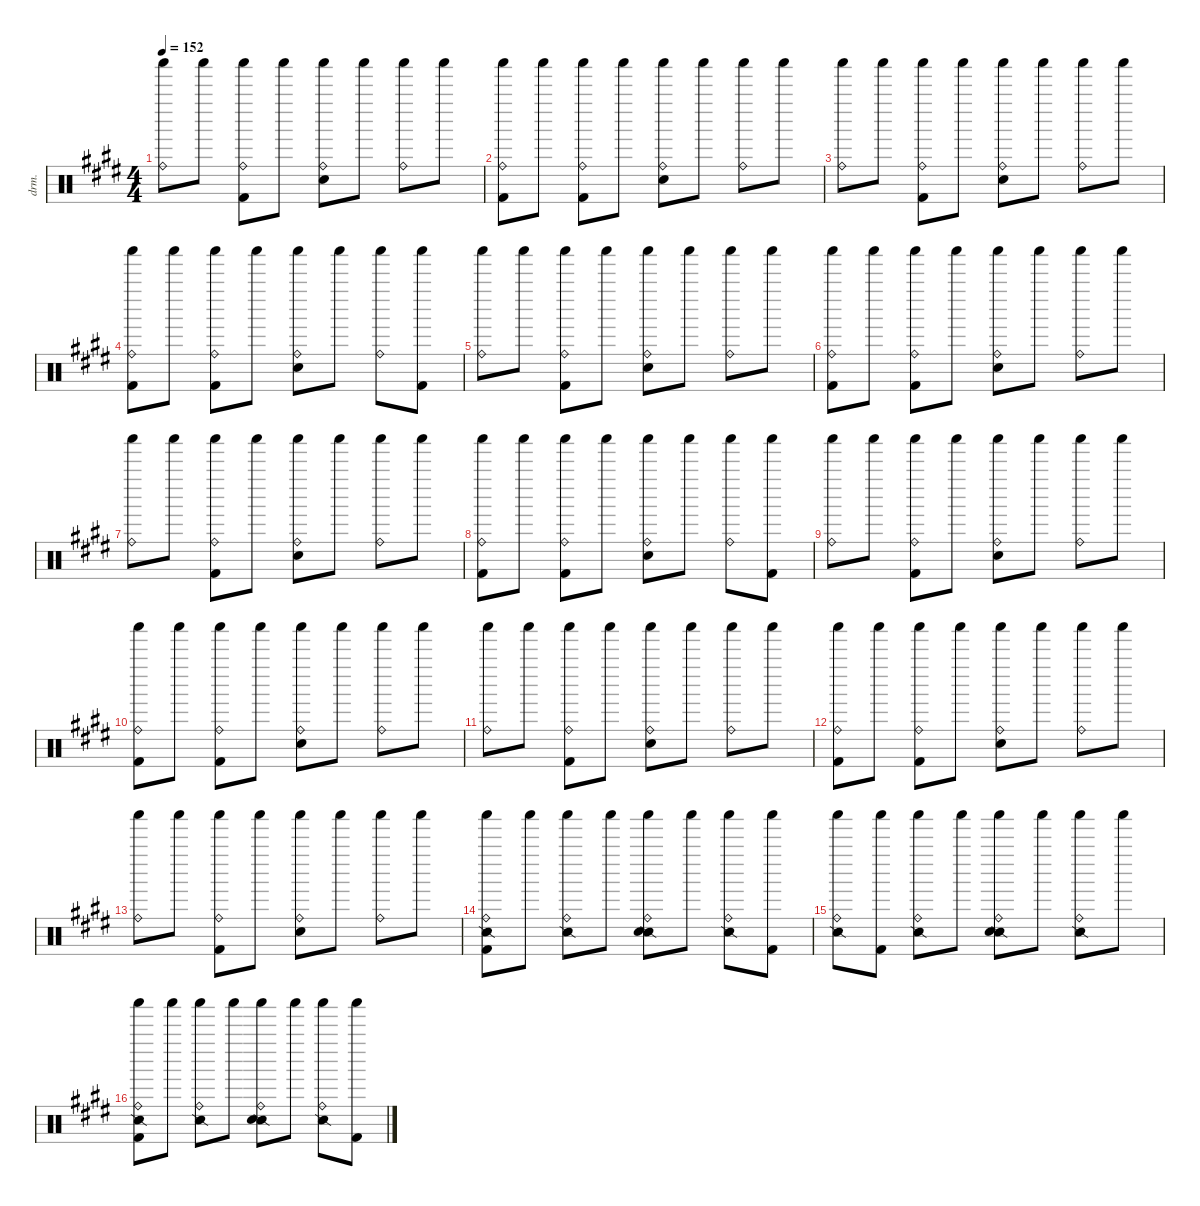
\defaultSystemsLayout 4
\hideDynamics
\bracketExtendMode nobrackets
\otherSystemsTrackNameOrientation horizontal
\track ("Drums" "drm.") {instrument percussion}
\staff {score}
\articulation defaults
\ts (4 4)
\tempo 152
\clef neutral
\ks c#minor
("Ride (bell)"{acc forcenatural} "Shaker (hit)"{acc forcenatural}).8{dy f} "Shaker (hit)"{acc forcenatural}.8 ("Ride (bell)"{acc forcenatural} "Kick (hit) 2"{acc forcenatural} "Shaker (hit)"{acc forcenatural}).8 "Shaker (hit)"{acc forcenatural}.8 ("Ride (bell)"{acc forcenatural} "Snare (hit) 2"{acc forcenatural} "Shaker (hit)"{acc forcenatural}).8 "Shaker (hit)"{acc forcenatural}.8 ("Ride (bell)"{acc forcenatural} "Shaker (hit)"{acc forcenatural}).8 "Shaker (hit)"{acc forcenatural}.8 |
("Ride (bell)"{acc forcenatural} "Kick (hit) 2"{acc forcenatural} "Shaker (hit)"{acc forcenatural}).8 "Shaker (hit)"{acc forcenatural}.8 ("Ride (bell)"{acc forcenatural} "Kick (hit) 2"{acc forcenatural} "Shaker (hit)"{acc forcenatural}).8 "Shaker (hit)"{acc forcenatural}.8 ("Ride (bell)"{acc forcenatural} "Snare (hit) 2"{acc forcenatural} "Shaker (hit)"{acc forcenatural}).8 "Shaker (hit)"{acc forcenatural}.8 ("Ride (bell)"{acc forcenatural} "Shaker (hit)"{acc forcenatural}).8 "Shaker (hit)"{acc forcenatural}.8 |
("Ride (bell)"{acc forcenatural} "Shaker (hit)"{acc forcenatural}).8 "Shaker (hit)"{acc forcenatural}.8 ("Ride (bell)"{acc forcenatural} "Kick (hit) 2"{acc forcenatural} "Shaker (hit)"{acc forcenatural}).8 "Shaker (hit)"{acc forcenatural}.8 ("Ride (bell)"{acc forcenatural} "Snare (hit) 2"{acc forcenatural} "Shaker (hit)"{acc forcenatural}).8 "Shaker (hit)"{acc forcenatural}.8 ("Ride (bell)"{acc forcenatural} "Shaker (hit)"{acc forcenatural}).8 "Shaker (hit)"{acc forcenatural}.8 |
("Ride (bell)"{acc forcenatural} "Kick (hit) 2"{acc forcenatural} "Shaker (hit)"{acc forcenatural}).8 "Shaker (hit)"{acc forcenatural}.8 ("Ride (bell)"{acc forcenatural} "Kick (hit) 2"{acc forcenatural} "Shaker (hit)"{acc forcenatural}).8 "Shaker (hit)"{acc forcenatural}.8 ("Ride (bell)"{acc forcenatural} "Snare (hit) 2"{acc forcenatural} "Shaker (hit)"{acc forcenatural}).8 "Shaker (hit)"{acc forcenatural}.8 ("Ride (bell)"{acc forcenatural} "Shaker (hit)"{acc forcenatural}).8 ("Kick (hit) 2"{acc forcenatural} "Shaker (hit)"{acc forcenatural}).8 |
("Ride (bell)"{acc forcenatural} "Shaker (hit)"{acc forcenatural}).8 "Shaker (hit)"{acc forcenatural}.8 ("Ride (bell)"{acc forcenatural} "Kick (hit) 2"{acc forcenatural} "Shaker (hit)"{acc forcenatural}).8 "Shaker (hit)"{acc forcenatural}.8 ("Ride (bell)"{acc forcenatural} "Snare (hit) 2"{acc forcenatural} "Shaker (hit)"{acc forcenatural}).8 "Shaker (hit)"{acc forcenatural}.8 ("Ride (bell)"{acc forcenatural} "Shaker (hit)"{acc forcenatural}).8 "Shaker (hit)"{acc forcenatural}.8 |
("Ride (bell)"{acc forcenatural} "Kick (hit) 2"{acc forcenatural} "Shaker (hit)"{acc forcenatural}).8 "Shaker (hit)"{acc forcenatural}.8 ("Ride (bell)"{acc forcenatural} "Kick (hit) 2"{acc forcenatural} "Shaker (hit)"{acc forcenatural}).8 "Shaker (hit)"{acc forcenatural}.8 ("Ride (bell)"{acc forcenatural} "Snare (hit) 2"{acc forcenatural} "Shaker (hit)"{acc forcenatural}).8 "Shaker (hit)"{acc forcenatural}.8 ("Ride (bell)"{acc forcenatural} "Shaker (hit)"{acc forcenatural}).8 "Shaker (hit)"{acc forcenatural}.8 |
("Ride (bell)"{acc forcenatural} "Shaker (hit)"{acc forcenatural}).8 "Shaker (hit)"{acc forcenatural}.8 ("Ride (bell)"{acc forcenatural} "Kick (hit) 2"{acc forcenatural} "Shaker (hit)"{acc forcenatural}).8 "Shaker (hit)"{acc forcenatural}.8 ("Ride (bell)"{acc forcenatural} "Snare (hit) 2"{acc forcenatural} "Shaker (hit)"{acc forcenatural}).8 "Shaker (hit)"{acc forcenatural}.8 ("Ride (bell)"{acc forcenatural} "Shaker (hit)"{acc forcenatural}).8 "Shaker (hit)"{acc forcenatural}.8 |
("Ride (bell)"{acc forcenatural} "Kick (hit) 2"{acc forcenatural} "Shaker (hit)"{acc forcenatural}).8 "Shaker (hit)"{acc forcenatural}.8 ("Ride (bell)"{acc forcenatural} "Kick (hit) 2"{acc forcenatural} "Shaker (hit)"{acc forcenatural}).8 "Shaker (hit)"{acc forcenatural}.8 ("Ride (bell)"{acc forcenatural} "Snare (hit) 2"{acc forcenatural} "Shaker (hit)"{acc forcenatural}).8 "Shaker (hit)"{acc forcenatural}.8 ("Ride (bell)"{acc forcenatural} "Shaker (hit)"{acc forcenatural}).8 ("Kick (hit) 2"{acc forcenatural} "Shaker (hit)"{acc forcenatural}).8 |
("Ride (bell)"{acc forcenatural} "Shaker (hit)"{acc forcenatural}).8 "Shaker (hit)"{acc forcenatural}.8 ("Ride (bell)"{acc forcenatural} "Kick (hit) 2"{acc forcenatural} "Shaker (hit)"{acc forcenatural}).8 "Shaker (hit)"{acc forcenatural}.8 ("Ride (bell)"{acc forcenatural} "Snare (hit) 2"{acc forcenatural} "Shaker (hit)"{acc forcenatural}).8 "Shaker (hit)"{acc forcenatural}.8 ("Ride (bell)"{acc forcenatural} "Shaker (hit)"{acc forcenatural}).8 "Shaker (hit)"{acc forcenatural}.8 |
("Ride (bell)"{acc forcenatural} "Kick (hit) 2"{acc forcenatural} "Shaker (hit)"{acc forcenatural}).8 "Shaker (hit)"{acc forcenatural}.8 ("Ride (bell)"{acc forcenatural} "Kick (hit) 2"{acc forcenatural} "Shaker (hit)"{acc forcenatural}).8 "Shaker (hit)"{acc forcenatural}.8 ("Ride (bell)"{acc forcenatural} "Snare (hit) 2"{acc forcenatural} "Shaker (hit)"{acc forcenatural}).8 "Shaker (hit)"{acc forcenatural}.8 ("Ride (bell)"{acc forcenatural} "Shaker (hit)"{acc forcenatural}).8 "Shaker (hit)"{acc forcenatural}.8 |
("Ride (bell)"{acc forcenatural} "Shaker (hit)"{acc forcenatural}).8 "Shaker (hit)"{acc forcenatural}.8 ("Ride (bell)"{acc forcenatural} "Kick (hit) 2"{acc forcenatural} "Shaker (hit)"{acc forcenatural}).8 "Shaker (hit)"{acc forcenatural}.8 ("Ride (bell)"{acc forcenatural} "Snare (hit) 2"{acc forcenatural} "Shaker (hit)"{acc forcenatural}).8 "Shaker (hit)"{acc forcenatural}.8 ("Ride (bell)"{acc forcenatural} "Shaker (hit)"{acc forcenatural}).8 "Shaker (hit)"{acc forcenatural}.8 |
("Ride (bell)"{acc forcenatural} "Kick (hit) 2"{acc forcenatural} "Shaker (hit)"{acc forcenatural}).8 "Shaker (hit)"{acc forcenatural}.8 ("Ride (bell)"{acc forcenatural} "Kick (hit) 2"{acc forcenatural} "Shaker (hit)"{acc forcenatural}).8 "Shaker (hit)"{acc forcenatural}.8 ("Ride (bell)"{acc forcenatural} "Snare (hit) 2"{acc forcenatural} "Shaker (hit)"{acc forcenatural}).8 "Shaker (hit)"{acc forcenatural}.8 ("Ride (bell)"{acc forcenatural} "Shaker (hit)"{acc forcenatural}).8 "Shaker (hit)"{acc forcenatural}.8 |
("Ride (bell)"{acc forcenatural} "Shaker (hit)"{acc forcenatural}).8 "Shaker (hit)"{acc forcenatural}.8 ("Ride (bell)"{acc forcenatural} "Kick (hit) 2"{acc forcenatural} "Shaker (hit)"{acc forcenatural}).8 "Shaker (hit)"{acc forcenatural}.8 ("Ride (bell)"{acc forcenatural} "Snare (hit) 2"{acc forcenatural} "Shaker (hit)"{acc forcenatural}).8 "Shaker (hit)"{acc forcenatural}.8 ("Ride (bell)"{acc forcenatural} "Shaker (hit)"{acc forcenatural}).8 "Shaker (hit)"{acc forcenatural}.8 |
("Snare (side stick) 2"{acc forcenatural} "Ride (bell)"{acc forcenatural} "Kick (hit) 2"{acc forcenatural} "Shaker (hit)"{acc forcenatural}).8 "Shaker (hit)"{acc forcenatural}.8 ("Snare (side stick) 2"{acc forcenatural} "Ride (bell)"{acc forcenatural} "Shaker (hit)"{acc forcenatural}).8 "Shaker (hit)"{acc forcenatural}.8 ("Snare (side stick) 2"{acc forcenatural} "Ride (bell)"{acc forcenatural} "Snare (hit) 2"{acc forcenatural} "Shaker (hit)"{acc forcenatural}).8 "Shaker (hit)"{acc forcenatural}.8 ("Snare (side stick) 2"{acc forcenatural} "Ride (bell)"{acc forcenatural} "Shaker (hit)"{acc forcenatural}).8 ("Kick (hit) 2"{acc forcenatural} "Shaker (hit)"{acc forcenatural}).8 |
("Snare (side stick) 2"{acc forcenatural} "Ride (bell)"{acc forcenatural} "Shaker (hit)"{acc forcenatural}).8 ("Shaker (hit)"{acc forcenatural} "Kick (hit) 2"{acc forcenatural}).8 ("Snare (side stick) 2"{acc forcenatural} "Ride (bell)"{acc forcenatural} "Shaker (hit)"{acc forcenatural}).8 "Shaker (hit)"{acc forcenatural}.8 ("Snare (side stick) 2"{acc forcenatural} "Ride (bell)"{acc forcenatural} "Snare (hit) 2"{acc forcenatural} "Shaker (hit)"{acc forcenatural}).8 "Shaker (hit)"{acc forcenatural}.8 ("Snare (side stick) 2"{acc forcenatural} "Ride (bell)"{acc forcenatural} "Shaker (hit)"{acc forcenatural}).8 "Shaker (hit)"{acc forcenatural}.8 |
("Snare (side stick) 2"{acc forcenatural} "Ride (bell)"{acc forcenatural} "Kick (hit) 2"{acc forcenatural} "Shaker (hit)"{acc forcenatural}).8 "Shaker (hit)"{acc forcenatural}.8 ("Snare (side stick) 2"{acc forcenatural} "Ride (bell)"{acc forcenatural} "Shaker (hit)"{acc forcenatural}).8 "Shaker (hit)"{acc forcenatural}.8 ("Snare (side stick) 2"{acc forcenatural} "Ride (bell)"{acc forcenatural} "Snare (hit) 2"{acc forcenatural} "Shaker (hit)"{acc forcenatural}).8 "Shaker (hit)"{acc forcenatural}.8 ("Snare (side stick) 2"{acc forcenatural} "Ride (bell)"{acc forcenatural} "Shaker (hit)"{acc forcenatural}).8 ("Kick (hit) 2"{acc forcenatural} "Shaker (hit)"{acc forcenatural}).8
